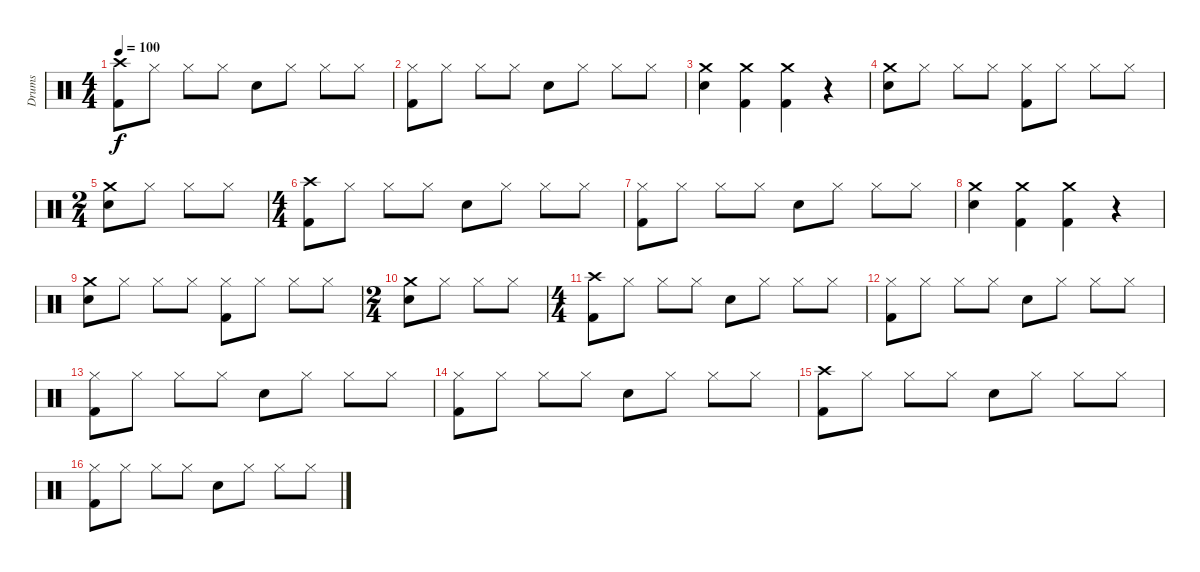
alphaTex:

\track ("Drums" "Drums") {instrument percussion}
\staff {score}
\articulation defaults
\ts (4 4)
\tempo 100
\clef neutral
\ks c
("Crash high (hit)" "Kick (hit) 2").8{dy f} "Hi-Hat (closed)".8 "Hi-Hat (closed)".8 "Hi-Hat (closed)".8 "Snare (hit) 2".8 "Hi-Hat (closed)".8 "Hi-Hat (closed)".8 "Hi-Hat (closed)".8 |
("Hi-Hat (closed)" "Kick (hit) 2").8 "Hi-Hat (closed)".8 "Hi-Hat (closed)".8 "Hi-Hat (closed)".8 "Snare (hit) 2".8 "Hi-Hat (closed)".8 "Hi-Hat (closed)".8 "Hi-Hat (closed)".8 |
("Snare (hit) 2" "Crash medium (hit)").4 ("Crash medium (hit)" "Kick (hit) 2").4 ("Crash medium (hit)" "Kick (hit) 2").4 r.4 |
("Snare (hit) 2" "Crash medium (hit)").8 "Hi-Hat (closed)".8 "Hi-Hat (closed)".8 "Hi-Hat (closed)".8 ("Hi-Hat (closed)" "Kick (hit) 2").8 "Hi-Hat (closed)".8 "Hi-Hat (closed)".8 "Hi-Hat (closed)".8 |
\ts (2 4)
("Snare (hit) 2" "Crash medium (hit)").8 "Hi-Hat (closed)".8 "Hi-Hat (closed)".8 "Hi-Hat (closed)".8 |
\ts (4 4)
("Crash high (hit)" "Kick (hit) 2").8 "Hi-Hat (closed)".8 "Hi-Hat (closed)".8 "Hi-Hat (closed)".8 "Snare (hit) 2".8 "Hi-Hat (closed)".8 "Hi-Hat (closed)".8 "Hi-Hat (closed)".8 |
("Hi-Hat (closed)" "Kick (hit) 2").8 "Hi-Hat (closed)".8 "Hi-Hat (closed)".8 "Hi-Hat (closed)".8 "Snare (hit) 2".8 "Hi-Hat (closed)".8 "Hi-Hat (closed)".8 "Hi-Hat (closed)".8 |
("Snare (hit) 2" "Crash medium (hit)").4 ("Crash medium (hit)" "Kick (hit) 2").4 ("Crash medium (hit)" "Kick (hit) 2").4 r.4 |
("Snare (hit) 2" "Crash medium (hit)").8 "Hi-Hat (closed)".8 "Hi-Hat (closed)".8 "Hi-Hat (closed)".8 ("Hi-Hat (closed)" "Kick (hit) 2").8 "Hi-Hat (closed)".8 "Hi-Hat (closed)".8 "Hi-Hat (closed)".8 |
\ts (2 4)
("Snare (hit) 2" "Crash medium (hit)").8 "Hi-Hat (closed)".8 "Hi-Hat (closed)".8 "Hi-Hat (closed)".8 |
\ts (4 4)
("Crash high (hit)" "Kick (hit) 2").8 "Hi-Hat (closed)".8 "Hi-Hat (closed)".8 "Hi-Hat (closed)".8 "Snare (hit) 2".8 "Hi-Hat (closed)".8 "Hi-Hat (closed)".8 "Hi-Hat (closed)".8 |
("Hi-Hat (closed)" "Kick (hit) 2").8 "Hi-Hat (closed)".8 "Hi-Hat (closed)".8 "Hi-Hat (closed)".8 "Snare (hit) 2".8 "Hi-Hat (closed)".8 "Hi-Hat (closed)".8 "Hi-Hat (closed)".8 |
("Hi-Hat (closed)" "Kick (hit) 2").8 "Hi-Hat (closed)".8 "Hi-Hat (closed)".8 "Hi-Hat (closed)".8 "Snare (hit) 2".8 "Hi-Hat (closed)".8 "Hi-Hat (closed)".8 "Hi-Hat (closed)".8 |
("Hi-Hat (closed)" "Kick (hit) 2").8 "Hi-Hat (closed)".8 "Hi-Hat (closed)".8 "Hi-Hat (closed)".8 "Snare (hit) 2".8 "Hi-Hat (closed)".8 "Hi-Hat (closed)".8 "Hi-Hat (closed)".8 |
("Crash high (hit)" "Kick (hit) 2").8 "Hi-Hat (closed)".8 "Hi-Hat (closed)".8 "Hi-Hat (closed)".8 "Snare (hit) 2".8 "Hi-Hat (closed)".8 "Hi-Hat (closed)".8 "Hi-Hat (closed)".8 |
("Hi-Hat (closed)" "Kick (hit) 2").8 "Hi-Hat (closed)".8 "Hi-Hat (closed)".8 "Hi-Hat (closed)".8 "Snare (hit) 2".8 "Hi-Hat (closed)".8 "Hi-Hat (closed)".8 "Hi-Hat (closed)".8
